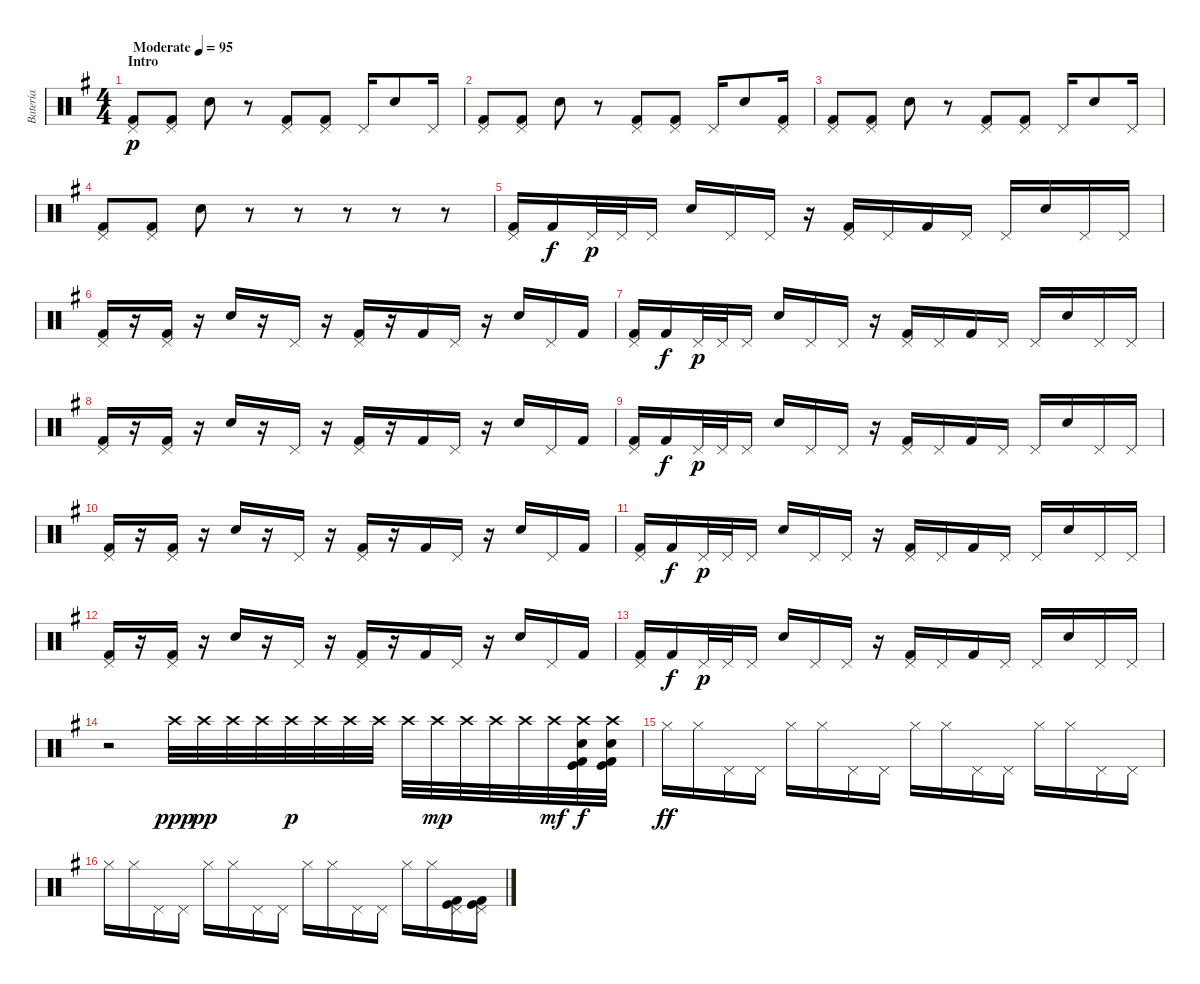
\track ("Batería" "Batería") {instrument percussion}
\staff {score}
\articulation defaults
\ts (4 4)
\section ("" "Intro")
\tempo (95 "Moderate")
\clef neutral
\ks g
("Pedal Hi-Hat (hit)" "Kick (hit) 2").8{dy p} ("Pedal Hi-Hat (hit)" "Kick (hit) 2").8 "Hand Clap (hit)".8 r.8 ("Pedal Hi-Hat (hit)" "Kick (hit) 2").8 ("Pedal Hi-Hat (hit)" "Kick (hit) 2").8 "Pedal Hi-Hat (hit)".16 "Hand Clap (hit)".8 "Pedal Hi-Hat (hit)".16 |
("Pedal Hi-Hat (hit)" "Kick (hit) 2").8 ("Pedal Hi-Hat (hit)" "Kick (hit) 2").8 "Hand Clap (hit)".8 r.8 ("Pedal Hi-Hat (hit)" "Kick (hit) 2").8 ("Pedal Hi-Hat (hit)" "Kick (hit) 2").8 "Pedal Hi-Hat (hit)".16 "Hand Clap (hit)".8 ("Pedal Hi-Hat (hit)" "Kick (hit) 2").16 |
("Pedal Hi-Hat (hit)" "Kick (hit) 2").8 ("Pedal Hi-Hat (hit)" "Kick (hit) 2").8 "Hand Clap (hit)".8 r.8 ("Pedal Hi-Hat (hit)" "Kick (hit) 2").8 ("Pedal Hi-Hat (hit)" "Kick (hit) 2").8 "Pedal Hi-Hat (hit)".16 "Hand Clap (hit)".8 "Pedal Hi-Hat (hit)".16 |
("Pedal Hi-Hat (hit)" "Kick (hit) 2").8 ("Pedal Hi-Hat (hit)" "Kick (hit) 2").8 "Hand Clap (hit)".8 r.8 r.8 r.8 r.8 r.8 |
("Pedal Hi-Hat (hit)" "Kick (hit) 2").16 "Kick (hit) 2".16{dy f} "Pedal Hi-Hat (hit)".32{dy p} "Pedal Hi-Hat (hit)".32 "Pedal Hi-Hat (hit)".16 "Hand Clap (hit)".16 "Pedal Hi-Hat (hit)".16 "Pedal Hi-Hat (hit)".16 r.16 ("Pedal Hi-Hat (hit)" "Kick (hit) 2").16 "Pedal Hi-Hat (hit)".16 "Kick (hit) 2".16 "Pedal Hi-Hat (hit)".16 "Pedal Hi-Hat (hit)".16 "Hand Clap (hit)".16 "Pedal Hi-Hat (hit)".16 "Pedal Hi-Hat (hit)".16 |
("Pedal Hi-Hat (hit)" "Kick (hit) 2").16 r.16 ("Pedal Hi-Hat (hit)" "Kick (hit) 2").16 r.16 "Hand Clap (hit)".16 r.16 "Pedal Hi-Hat (hit)".16 r.16 ("Pedal Hi-Hat (hit)" "Kick (hit) 2").16 r.16 "Kick (hit) 2".16 "Pedal Hi-Hat (hit)".16 r.16 "Hand Clap (hit)".16 "Pedal Hi-Hat (hit)".16 "Kick (hit) 2".16 |
("Pedal Hi-Hat (hit)" "Kick (hit) 2").16 "Kick (hit) 2".16{dy f} "Pedal Hi-Hat (hit)".32{dy p} "Pedal Hi-Hat (hit)".32 "Pedal Hi-Hat (hit)".16 "Hand Clap (hit)".16 "Pedal Hi-Hat (hit)".16 "Pedal Hi-Hat (hit)".16 r.16 ("Pedal Hi-Hat (hit)" "Kick (hit) 2").16 "Pedal Hi-Hat (hit)".16 "Kick (hit) 2".16 "Pedal Hi-Hat (hit)".16 "Pedal Hi-Hat (hit)".16 "Hand Clap (hit)".16 "Pedal Hi-Hat (hit)".16 "Pedal Hi-Hat (hit)".16 |
("Pedal Hi-Hat (hit)" "Kick (hit) 2").16 r.16 ("Pedal Hi-Hat (hit)" "Kick (hit) 2").16 r.16 "Hand Clap (hit)".16 r.16 "Pedal Hi-Hat (hit)".16 r.16 ("Pedal Hi-Hat (hit)" "Kick (hit) 2").16 r.16 "Kick (hit) 2".16 "Pedal Hi-Hat (hit)".16 r.16 "Hand Clap (hit)".16 "Pedal Hi-Hat (hit)".16 "Kick (hit) 2".16 |
("Pedal Hi-Hat (hit)" "Kick (hit) 2").16 "Kick (hit) 2".16{dy f} "Pedal Hi-Hat (hit)".32{dy p} "Pedal Hi-Hat (hit)".32 "Pedal Hi-Hat (hit)".16 "Hand Clap (hit)".16 "Pedal Hi-Hat (hit)".16 "Pedal Hi-Hat (hit)".16 r.16 ("Pedal Hi-Hat (hit)" "Kick (hit) 2").16 "Pedal Hi-Hat (hit)".16 "Kick (hit) 2".16 "Pedal Hi-Hat (hit)".16 "Pedal Hi-Hat (hit)".16 "Hand Clap (hit)".16 "Pedal Hi-Hat (hit)".16 "Pedal Hi-Hat (hit)".16 |
("Pedal Hi-Hat (hit)" "Kick (hit) 2").16 r.16 ("Pedal Hi-Hat (hit)" "Kick (hit) 2").16 r.16 "Hand Clap (hit)".16 r.16 "Pedal Hi-Hat (hit)".16 r.16 ("Pedal Hi-Hat (hit)" "Kick (hit) 2").16 r.16 "Kick (hit) 2".16 "Pedal Hi-Hat (hit)".16 r.16 "Hand Clap (hit)".16 "Pedal Hi-Hat (hit)".16 "Kick (hit) 2".16 |
("Pedal Hi-Hat (hit)" "Kick (hit) 2").16 "Kick (hit) 2".16{dy f} "Pedal Hi-Hat (hit)".32{dy p} "Pedal Hi-Hat (hit)".32 "Pedal Hi-Hat (hit)".16 "Hand Clap (hit)".16 "Pedal Hi-Hat (hit)".16 "Pedal Hi-Hat (hit)".16 r.16 ("Pedal Hi-Hat (hit)" "Kick (hit) 2").16 "Pedal Hi-Hat (hit)".16 "Kick (hit) 2".16 "Pedal Hi-Hat (hit)".16 "Pedal Hi-Hat (hit)".16 "Hand Clap (hit)".16 "Pedal Hi-Hat (hit)".16 "Pedal Hi-Hat (hit)".16 |
("Pedal Hi-Hat (hit)" "Kick (hit) 2").16 r.16 ("Pedal Hi-Hat (hit)" "Kick (hit) 2").16 r.16 "Hand Clap (hit)".16 r.16 "Pedal Hi-Hat (hit)".16 r.16 ("Pedal Hi-Hat (hit)" "Kick (hit) 2").16 r.16 "Kick (hit) 2".16 "Pedal Hi-Hat (hit)".16 r.16 "Hand Clap (hit)".16 "Pedal Hi-Hat (hit)".16 "Kick (hit) 2".16 |
("Pedal Hi-Hat (hit)" "Kick (hit) 2").16 "Kick (hit) 2".16{dy f} "Pedal Hi-Hat (hit)".32{dy p} "Pedal Hi-Hat (hit)".32 "Pedal Hi-Hat (hit)".16 "Hand Clap (hit)".16 "Pedal Hi-Hat (hit)".16 "Pedal Hi-Hat (hit)".16 r.16 ("Pedal Hi-Hat (hit)" "Kick (hit) 2").16 "Pedal Hi-Hat (hit)".16 "Kick (hit) 2".16 "Pedal Hi-Hat (hit)".16 "Pedal Hi-Hat (hit)".16 "Hand Clap (hit)".16 "Pedal Hi-Hat (hit)".16 "Pedal Hi-Hat (hit)".16 |
r.2 "Crash high (hit)".32{dy ppp} "Crash high (hit)".32{dy pp} "Crash high (hit)".32 "Crash high (hit)".32 "Crash high (hit)".32{dy p} "Crash high (hit)".32 "Crash high (hit)".32 "Crash high (hit)".32 "Crash high (hit)".32 "Crash high (hit)".32{dy mp} "Crash high (hit)".32 "Crash high (hit)".32 "Crash high (hit)".32 "Crash high (hit)".32{dy mf} ("Crash high (hit)" "Electric Snare (hit)" "Kick (hit) 2" "Kick (hit)").32{dy f} ("Crash high (hit)" "Electric Snare (hit)" "Kick (hit) 2" "Kick (hit)").32 |
"Hi-Hat (closed)".16{dy ff} "Hi-Hat (closed)".16 "Pedal Hi-Hat (hit)".16 "Pedal Hi-Hat (hit)".16 "Hi-Hat (closed)".16 "Hi-Hat (closed)".16 "Pedal Hi-Hat (hit)".16 "Pedal Hi-Hat (hit)".16 "Hi-Hat (closed)".16 "Hi-Hat (closed)".16 "Pedal Hi-Hat (hit)".16 "Pedal Hi-Hat (hit)".16 "Hi-Hat (closed)".16 "Hi-Hat (closed)".16 "Pedal Hi-Hat (hit)".16 "Pedal Hi-Hat (hit)".16 |
"Hi-Hat (closed)".16 "Hi-Hat (closed)".16 "Pedal Hi-Hat (hit)".16 "Pedal Hi-Hat (hit)".16 "Hi-Hat (closed)".16 "Hi-Hat (closed)".16 "Pedal Hi-Hat (hit)".16 "Pedal Hi-Hat (hit)".16 "Hi-Hat (closed)".16 "Hi-Hat (closed)".16 "Pedal Hi-Hat (hit)".16 "Pedal Hi-Hat (hit)".16 "Hi-Hat (closed)".16 "Hi-Hat (closed)".16 ("Pedal Hi-Hat (hit)" "Kick (hit) 2" "Kick (hit)").16 ("Pedal Hi-Hat (hit)" "Kick (hit) 2" "Kick (hit)").16
